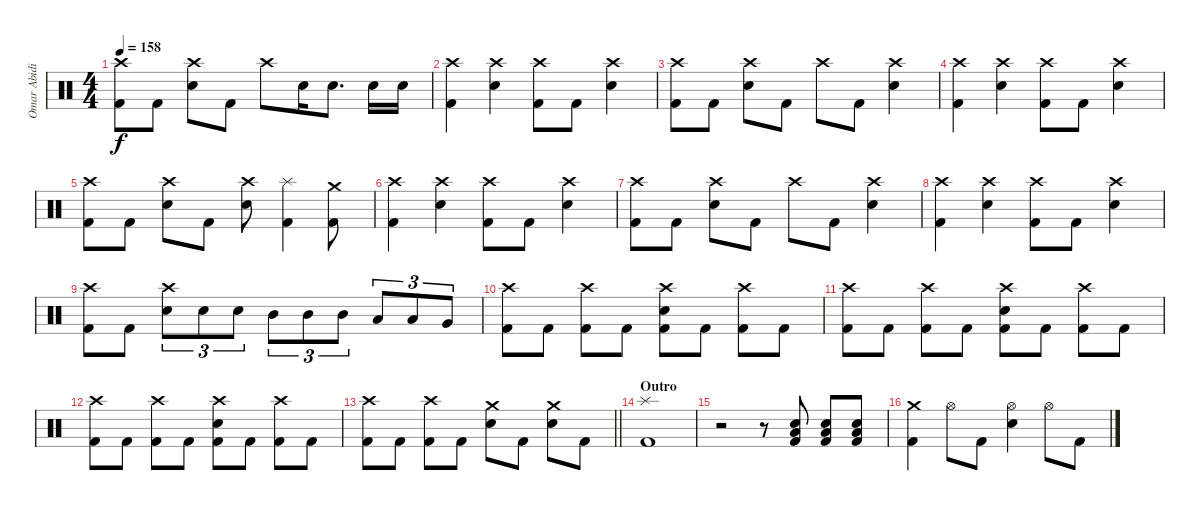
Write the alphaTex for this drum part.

\track ("Omar Abidi" "Omar Abidi") {instrument percussion}
\staff {score}
\articulation defaults
\ts (4 4)
\tempo 158
\clef neutral
\ks c
("Crash high (hit)" "Kick (hit) 2").8{dy f} "Kick (hit) 2".8 ("Crash high (hit)" "Snare (hit) 2").8 "Kick (hit) 2".8 "Crash high (hit)".8 "Snare (hit) 2".16 "Snare (hit) 2".8{d} "Snare (hit) 2".16 "Snare (hit) 2".16 |
("Crash high (hit)" "Kick (hit) 2").4 ("Crash high (hit)" "Snare (hit) 2").4 ("Crash high (hit)" "Kick (hit) 2").8 "Kick (hit) 2".8 ("Crash high (hit)" "Snare (hit) 2").4 |
("Crash high (hit)" "Kick (hit) 2").8 "Kick (hit) 2".8 ("Crash high (hit)" "Snare (hit) 2").8 "Kick (hit) 2".8 "Crash high (hit)".8 "Kick (hit) 2".8 ("Crash high (hit)" "Snare (hit) 2").4 |
("Crash high (hit)" "Kick (hit) 2").4 ("Crash high (hit)" "Snare (hit) 2").4 ("Crash high (hit)" "Kick (hit) 2").8 "Kick (hit) 2".8 ("Crash high (hit)" "Snare (hit) 2").4 |
("Crash high (hit)" "Kick (hit) 2").8 "Kick (hit) 2".8 ("Crash high (hit)" "Snare (hit) 2").8 "Kick (hit) 2".8 ("Crash high (hit)" "Snare (hit) 2").8 ("Splash (hit)" "Kick (hit) 2").4 ("Crash medium (hit)" "Kick (hit) 2").8 |
("Crash high (hit)" "Kick (hit) 2").4 ("Crash high (hit)" "Snare (hit) 2").4 ("Crash high (hit)" "Kick (hit) 2").8 "Kick (hit) 2".8 ("Crash high (hit)" "Snare (hit) 2").4 |
("Crash high (hit)" "Kick (hit) 2").8 "Kick (hit) 2".8 ("Crash high (hit)" "Snare (hit) 2").8 "Kick (hit) 2".8 "Crash high (hit)".8 "Kick (hit) 2".8 ("Crash high (hit)" "Snare (hit) 2").4 |
("Crash high (hit)" "Kick (hit) 2").4 ("Crash high (hit)" "Snare (hit) 2").4 ("Crash high (hit)" "Kick (hit) 2").8 "Kick (hit) 2".8 ("Crash high (hit)" "Snare (hit) 2").4 |
("Crash high (hit)" "Kick (hit) 2").8 "Kick (hit) 2".8 ("Crash high (hit)" "Snare (hit) 2").8{tu (3 2)} "Snare (hit) 2".8{tu (3 2)} "Snare (hit) 2".8{tu (3 2)} "Mid Tom (hit)".8{tu (3 2)} "Mid Tom (hit)".8{tu (3 2)} "Mid Tom (hit)".8{tu (3 2)} "Low Tom (hit)".8{tu (3 2)} "Low Tom (hit)".8{tu (3 2)} "Very Low Tom (hit)".8{tu (3 2)} |
("Crash high (hit)" "Kick (hit) 2").8 "Kick (hit) 2".8 ("Crash high (hit)" "Kick (hit) 2").8 "Kick (hit) 2".8 ("Crash high (hit)" "Snare (hit) 2" "Kick (hit) 2").8 "Kick (hit) 2".8 ("Crash high (hit)" "Kick (hit) 2").8 "Kick (hit) 2".8 |
("Crash high (hit)" "Kick (hit) 2").8 "Kick (hit) 2".8 ("Crash high (hit)" "Kick (hit) 2").8 "Kick (hit) 2".8 ("Crash high (hit)" "Snare (hit) 2" "Kick (hit) 2").8 "Kick (hit) 2".8 ("Crash high (hit)" "Kick (hit) 2").8 "Kick (hit) 2".8 |
("Crash high (hit)" "Kick (hit) 2").8 "Kick (hit) 2".8 ("Crash high (hit)" "Kick (hit) 2").8 "Kick (hit) 2".8 ("Crash high (hit)" "Snare (hit) 2" "Kick (hit) 2").8 "Kick (hit) 2".8 ("Crash high (hit)" "Kick (hit) 2").8 "Kick (hit) 2".8 |
\barLineRight lightlight
("Crash high (hit)" "Kick (hit) 2").8 "Kick (hit) 2".8 ("Crash high (hit)" "Kick (hit) 2").8 "Kick (hit) 2".8 ("Crash medium (hit)" "Snare (hit) 2").8 "Kick (hit) 2".8 ("Crash medium (hit)" "Snare (hit) 2").8 "Kick (hit) 2".8 |
\section ("" "Outro")
("Splash (hit)" "Kick (hit) 2").1 |
r.2 r.8 ("Snare (hit) 2" "Low Tom (hit)" "Kick (hit) 2").8 ("Snare (hit) 2" "Low Tom (hit)" "Kick (hit) 2").8 ("Snare (hit) 2" "Low Tom (hit)" "Kick (hit) 2").8 |
("Crash medium (hit)" "Kick (hit) 2").4 "Hi-Hat (open)".8 "Kick (hit) 2".8 ("Hi-Hat (open)" "Snare (hit) 2").4 "Hi-Hat (open)".8 "Kick (hit) 2".8
